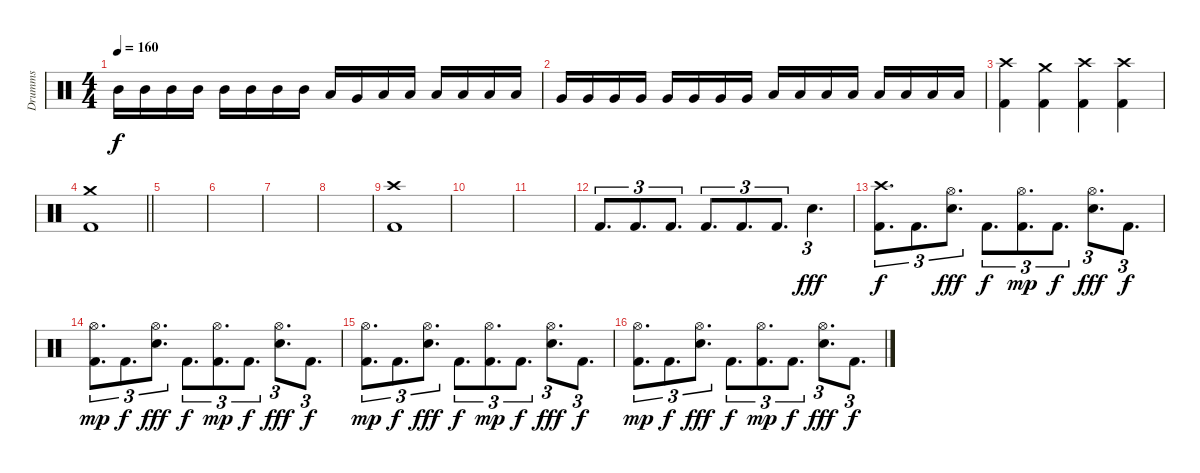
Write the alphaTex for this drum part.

\track ("Drumms" "Drumms") {instrument percussion}
\staff {score}
\articulation defaults
\ts (4 4)
\tempo 160
\clef neutral
\ks c "Mid Tom (hit)".16{dy f} "Mid Tom (hit)".16 "Mid Tom (hit)".16 "Mid Tom (hit)".16 "Mid Tom (hit)".16 "Mid Tom (hit)".16 "Mid Tom (hit)".16 "Mid Tom (hit)".16 "Low Tom (hit)".16 "Very Low Tom (hit)".16 "Low Tom (hit)".16 "Low Tom (hit)".16 "Low Tom (hit)".16 "Low Tom (hit)".16 "Low Tom (hit)".16 "Low Tom (hit)".16
|
"Very Low Tom (hit)".16 "Very Low Tom (hit)".16 "Very Low Tom (hit)".16 "Very Low Tom (hit)".16 "Very Low Tom (hit)".16 "Very Low Tom (hit)".16 "Very Low Tom (hit)".16 "Very Low Tom (hit)".16 "Low Floor Tom (hit)".16 "Low Floor Tom (hit)".16 "Low Floor Tom (hit)".16 "Low Floor Tom (hit)".16 "Low Floor Tom (hit)".16 "Low Floor Tom (hit)".16 "Low Floor Tom (hit)".16 "Low Floor Tom (hit)".16 |
("Crash high (hit)" "Kick (hit) 2").4 ("Crash medium (hit)" "Kick (hit) 2").4 ("Crash high (hit)" "Kick (hit) 2").4 ("Crash high (hit)" "Kick (hit) 2").4 |
\barLineRight lightlight
("Crash medium (hit)" "Kick (hit) 2").1 |
\section ("" "")
|
|
|
|
("Crash high (hit)" "Kick (hit) 2").1 |
|
|
"Kick (hit) 2".8{d tu (3 2)} "Kick (hit) 2".8{d tu (3 2)} "Kick (hit) 2".8{d tu (3 2)} "Kick (hit) 2".8{d tu (3 2)} "Kick (hit) 2".8{d tu (3 2)} "Kick (hit) 2".8{d tu (3 2)} "Electric Snare (hit)".4{d tu (3 2) dy fff} |
("Crash high (hit)" "Kick (hit) 2").8{d tu (3 2) dy f} "Kick (hit) 2".8{d tu (3 2)} ("Hi-Hat (open)" "Electric Snare (hit)").8{d tu (3 2) dy fff} "Kick (hit) 2".8{d tu (3 2) dy f} ("Hi-Hat (open)" "Kick (hit) 2").8{d tu (3 2) dy mp} "Kick (hit) 2".8{d tu (3 2) dy f} ("Hi-Hat (open)" "Electric Snare (hit)").8{d tu (3 2) dy fff} "Kick (hit) 2".8{d tu (3 2) dy f} |
("Hi-Hat (open)" "Kick (hit) 2").8{d tu (3 2) dy mp} "Kick (hit) 2".8{d tu (3 2) dy f} ("Hi-Hat (open)" "Electric Snare (hit)").8{d tu (3 2) dy fff} "Kick (hit) 2".8{d tu (3 2) dy f} ("Hi-Hat (open)" "Kick (hit) 2").8{d tu (3 2) dy mp} "Kick (hit) 2".8{d tu (3 2) dy f} ("Hi-Hat (open)" "Electric Snare (hit)").8{d tu (3 2) dy fff} "Kick (hit) 2".8{d tu (3 2) dy f} |
("Hi-Hat (open)" "Kick (hit) 2").8{d tu (3 2) dy mp} "Kick (hit) 2".8{d tu (3 2) dy f} ("Hi-Hat (open)" "Electric Snare (hit)").8{d tu (3 2) dy fff} "Kick (hit) 2".8{d tu (3 2) dy f} ("Hi-Hat (open)" "Kick (hit) 2").8{d tu (3 2) dy mp} "Kick (hit) 2".8{d tu (3 2) dy f} ("Hi-Hat (open)" "Electric Snare (hit)").8{d tu (3 2) dy fff} "Kick (hit) 2".8{d tu (3 2) dy f} |
("Hi-Hat (open)" "Kick (hit) 2").8{d tu (3 2) dy mp} "Kick (hit) 2".8{d tu (3 2) dy f} ("Hi-Hat (open)" "Electric Snare (hit)").8{d tu (3 2) dy fff} "Kick (hit) 2".8{d tu (3 2) dy f} ("Hi-Hat (open)" "Kick (hit) 2").8{d tu (3 2) dy mp} "Kick (hit) 2".8{d tu (3 2) dy f} ("Hi-Hat (open)" "Electric Snare (hit)").8{d tu (3 2) dy fff} "Kick (hit) 2".8{d tu (3 2) dy f}
